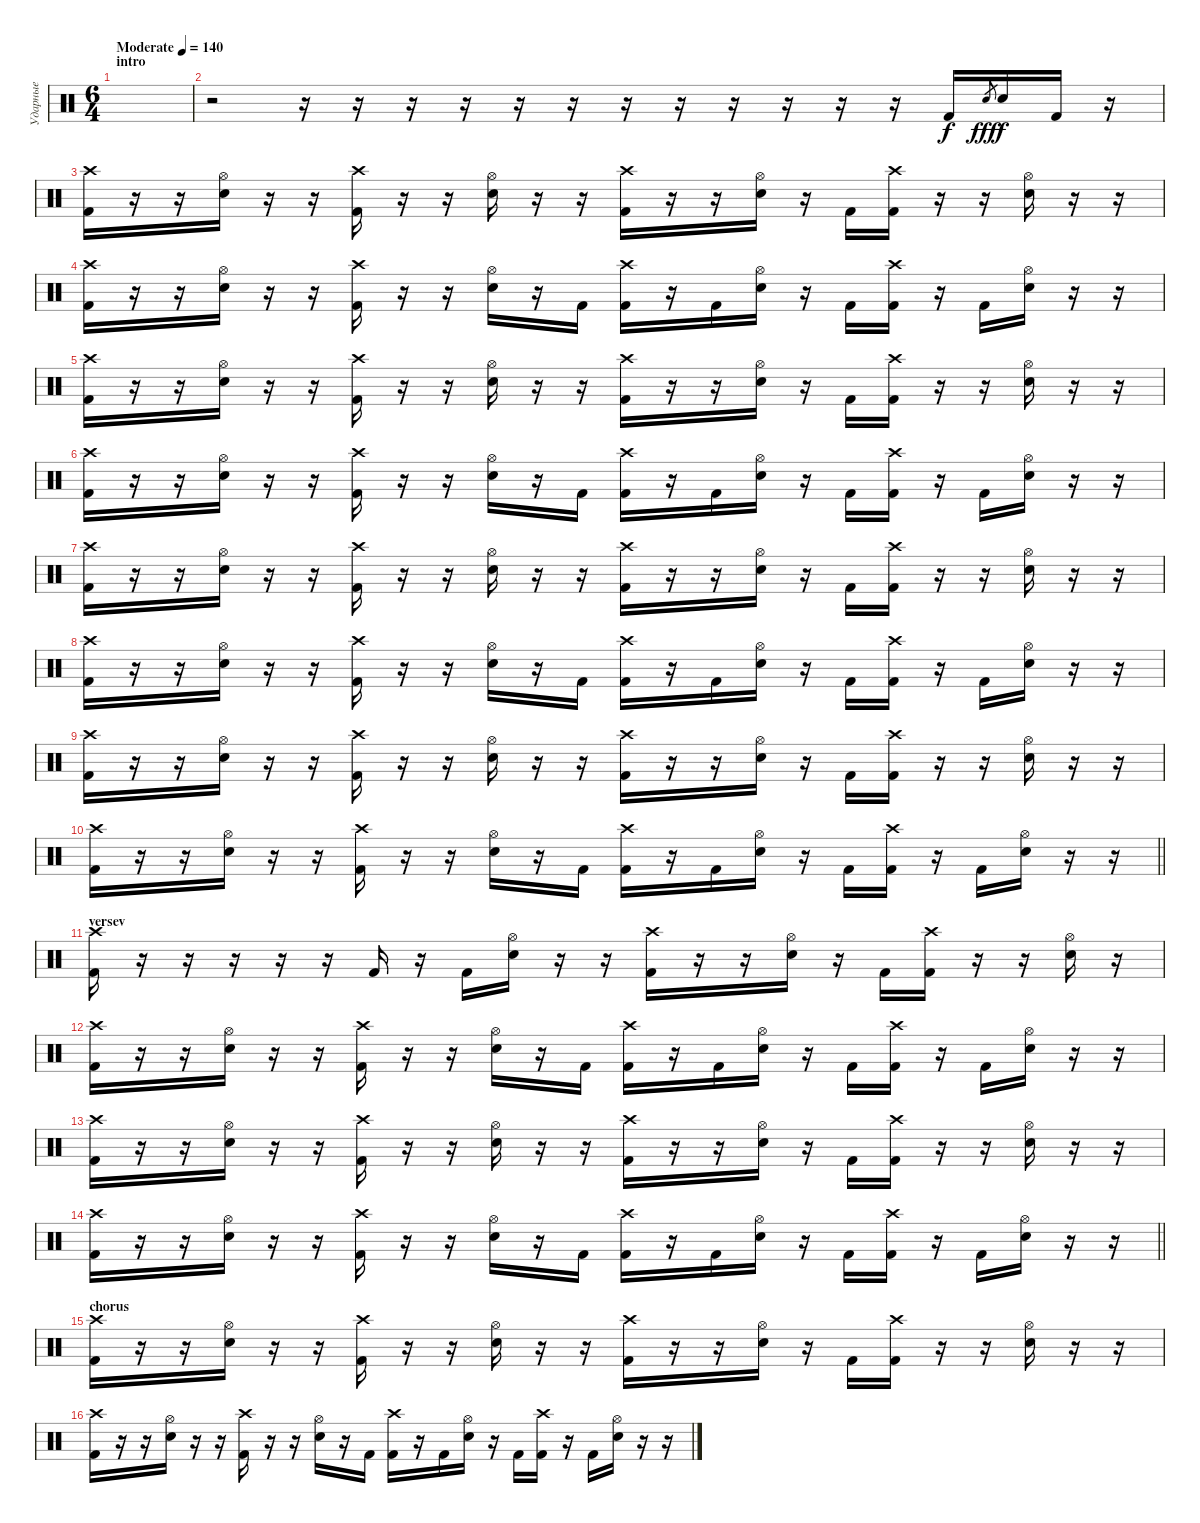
\track ("Ударные" "Ударные") {instrument percussion}
\staff {score}
\articulation defaults
\ts (6 4)
\section ("" "intro")
\tempo (140 "Moderate")
\clef neutral
\ks c
|
r.2 r.16 r.16 r.16 r.16 r.16 r.16 r.16 r.16 r.16 r.16 r.16 r.16 "Kick (hit) 2".16 "Snare (hit) 2".8{gr dy fff} "Snare (hit) 2".16{dy f} "Kick (hit) 2".16 r.16 |
("Crash high (hit)" "Kick (hit) 2").16 r.16 r.16 ("Hi-Hat (open)" "Snare (hit) 2").16 r.16 r.16 ("Crash high (hit)" "Kick (hit) 2").16 r.16 r.16 ("Hi-Hat (open)" "Snare (hit) 2").16 r.16 r.16 ("Crash high (hit)" "Kick (hit) 2").16 r.16 r.16 ("Hi-Hat (open)" "Snare (hit) 2").16 r.16 "Kick (hit) 2".16 ("Crash high (hit)" "Kick (hit) 2").16 r.16 r.16 ("Hi-Hat (open)" "Snare (hit) 2").16 r.16 r.16 |
("Crash high (hit)" "Kick (hit) 2").16 r.16 r.16 ("Hi-Hat (open)" "Snare (hit) 2").16 r.16 r.16 ("Crash high (hit)" "Kick (hit) 2").16 r.16 r.16 ("Hi-Hat (open)" "Snare (hit) 2").16 r.16 "Kick (hit) 2".16 ("Crash high (hit)" "Kick (hit) 2").16 r.16 "Kick (hit) 2".16 ("Hi-Hat (open)" "Snare (hit) 2").16 r.16 "Kick (hit) 2".16 ("Crash high (hit)" "Kick (hit) 2").16 r.16 "Kick (hit) 2".16 ("Hi-Hat (open)" "Snare (hit) 2").16 r.16 r.16 |
("Crash high (hit)" "Kick (hit) 2").16 r.16 r.16 ("Hi-Hat (open)" "Snare (hit) 2").16 r.16 r.16 ("Crash high (hit)" "Kick (hit) 2").16 r.16 r.16 ("Hi-Hat (open)" "Snare (hit) 2").16 r.16 r.16 ("Crash high (hit)" "Kick (hit) 2").16 r.16 r.16 ("Hi-Hat (open)" "Snare (hit) 2").16 r.16 "Kick (hit) 2".16 ("Crash high (hit)" "Kick (hit) 2").16 r.16 r.16 ("Hi-Hat (open)" "Snare (hit) 2").16 r.16 r.16 |
("Crash high (hit)" "Kick (hit) 2").16 r.16 r.16 ("Hi-Hat (open)" "Snare (hit) 2").16 r.16 r.16 ("Crash high (hit)" "Kick (hit) 2").16 r.16 r.16 ("Hi-Hat (open)" "Snare (hit) 2").16 r.16 "Kick (hit) 2".16 ("Crash high (hit)" "Kick (hit) 2").16 r.16 "Kick (hit) 2".16 ("Hi-Hat (open)" "Snare (hit) 2").16 r.16 "Kick (hit) 2".16 ("Crash high (hit)" "Kick (hit) 2").16 r.16 "Kick (hit) 2".16 ("Hi-Hat (open)" "Snare (hit) 2").16 r.16 r.16 |
("Crash high (hit)" "Kick (hit) 2").16 r.16 r.16 ("Hi-Hat (open)" "Snare (hit) 2").16 r.16 r.16 ("Crash high (hit)" "Kick (hit) 2").16 r.16 r.16 ("Hi-Hat (open)" "Snare (hit) 2").16 r.16 r.16 ("Crash high (hit)" "Kick (hit) 2").16 r.16 r.16 ("Hi-Hat (open)" "Snare (hit) 2").16 r.16 "Kick (hit) 2".16 ("Crash high (hit)" "Kick (hit) 2").16 r.16 r.16 ("Hi-Hat (open)" "Snare (hit) 2").16 r.16 r.16 |
("Crash high (hit)" "Kick (hit) 2").16 r.16 r.16 ("Hi-Hat (open)" "Snare (hit) 2").16 r.16 r.16 ("Crash high (hit)" "Kick (hit) 2").16 r.16 r.16 ("Hi-Hat (open)" "Snare (hit) 2").16 r.16 "Kick (hit) 2".16 ("Crash high (hit)" "Kick (hit) 2").16 r.16 "Kick (hit) 2".16 ("Hi-Hat (open)" "Snare (hit) 2").16 r.16 "Kick (hit) 2".16 ("Crash high (hit)" "Kick (hit) 2").16 r.16 "Kick (hit) 2".16 ("Hi-Hat (open)" "Snare (hit) 2").16 r.16 r.16 |
("Crash high (hit)" "Kick (hit) 2").16 r.16 r.16 ("Hi-Hat (open)" "Snare (hit) 2").16 r.16 r.16 ("Crash high (hit)" "Kick (hit) 2").16 r.16 r.16 ("Hi-Hat (open)" "Snare (hit) 2").16 r.16 r.16 ("Crash high (hit)" "Kick (hit) 2").16 r.16 r.16 ("Hi-Hat (open)" "Snare (hit) 2").16 r.16 "Kick (hit) 2".16 ("Crash high (hit)" "Kick (hit) 2").16 r.16 r.16 ("Hi-Hat (open)" "Snare (hit) 2").16 r.16 r.16 |
\barLineRight lightlight
("Crash high (hit)" "Kick (hit) 2").16 r.16 r.16 ("Hi-Hat (open)" "Snare (hit) 2").16 r.16 r.16 ("Crash high (hit)" "Kick (hit) 2").16 r.16 r.16 ("Hi-Hat (open)" "Snare (hit) 2").16 r.16 "Kick (hit) 2".16 ("Crash high (hit)" "Kick (hit) 2").16 r.16 "Kick (hit) 2".16 ("Hi-Hat (open)" "Snare (hit) 2").16 r.16 "Kick (hit) 2".16 ("Crash high (hit)" "Kick (hit) 2").16 r.16 "Kick (hit) 2".16 ("Hi-Hat (open)" "Snare (hit) 2").16 r.16 r.16 |
\section ("" "versev")
("Crash high (hit)" "Kick (hit) 2").16 r.16 r.16 r.16 r.16 r.16 "Kick (hit) 2".16 r.16 "Kick (hit) 2".16 ("Hi-Hat (open)" "Snare (hit) 2").16 r.16 r.16 ("Crash high (hit)" "Kick (hit) 2").16 r.16 r.16 ("Hi-Hat (open)" "Snare (hit) 2").16 r.16 "Kick (hit) 2".16 ("Crash high (hit)" "Kick (hit) 2").16 r.16 r.16 ("Hi-Hat (open)" "Snare (hit) 2").16 r.16 |
("Crash high (hit)" "Kick (hit) 2").16 r.16 r.16 ("Hi-Hat (open)" "Snare (hit) 2").16 r.16 r.16 ("Crash high (hit)" "Kick (hit) 2").16 r.16 r.16 ("Hi-Hat (open)" "Snare (hit) 2").16 r.16 "Kick (hit) 2".16 ("Crash high (hit)" "Kick (hit) 2").16 r.16 "Kick (hit) 2".16 ("Hi-Hat (open)" "Snare (hit) 2").16 r.16 "Kick (hit) 2".16 ("Crash high (hit)" "Kick (hit) 2").16 r.16 "Kick (hit) 2".16 ("Hi-Hat (open)" "Snare (hit) 2").16 r.16 r.16 |
("Crash high (hit)" "Kick (hit) 2").16 r.16 r.16 ("Hi-Hat (open)" "Snare (hit) 2").16 r.16 r.16 ("Crash high (hit)" "Kick (hit) 2").16 r.16 r.16 ("Hi-Hat (open)" "Snare (hit) 2").16 r.16 r.16 ("Crash high (hit)" "Kick (hit) 2").16 r.16 r.16 ("Hi-Hat (open)" "Snare (hit) 2").16 r.16 "Kick (hit) 2".16 ("Crash high (hit)" "Kick (hit) 2").16 r.16 r.16 ("Hi-Hat (open)" "Snare (hit) 2").16 r.16 r.16 |
\barLineRight lightlight
("Crash high (hit)" "Kick (hit) 2").16 r.16 r.16 ("Hi-Hat (open)" "Snare (hit) 2").16 r.16 r.16 ("Crash high (hit)" "Kick (hit) 2").16 r.16 r.16 ("Hi-Hat (open)" "Snare (hit) 2").16 r.16 "Kick (hit) 2".16 ("Crash high (hit)" "Kick (hit) 2").16 r.16 "Kick (hit) 2".16 ("Hi-Hat (open)" "Snare (hit) 2").16 r.16 "Kick (hit) 2".16 ("Crash high (hit)" "Kick (hit) 2").16 r.16 "Kick (hit) 2".16 ("Hi-Hat (open)" "Snare (hit) 2").16 r.16 r.16 |
\section ("" "chorus")
("Crash high (hit)" "Kick (hit) 2").16 r.16 r.16 ("Hi-Hat (open)" "Snare (hit) 2").16 r.16 r.16 ("Crash high (hit)" "Kick (hit) 2").16 r.16 r.16 ("Hi-Hat (open)" "Snare (hit) 2").16 r.16 r.16 ("Crash high (hit)" "Kick (hit) 2").16 r.16 r.16 ("Hi-Hat (open)" "Snare (hit) 2").16 r.16 "Kick (hit) 2".16 ("Crash high (hit)" "Kick (hit) 2").16 r.16 r.16 ("Hi-Hat (open)" "Snare (hit) 2").16 r.16 r.16 |
("Crash high (hit)" "Kick (hit) 2").16 r.16 r.16 ("Hi-Hat (open)" "Snare (hit) 2").16 r.16 r.16 ("Crash high (hit)" "Kick (hit) 2").16 r.16 r.16 ("Hi-Hat (open)" "Snare (hit) 2").16 r.16 "Kick (hit) 2".16 ("Crash high (hit)" "Kick (hit) 2").16 r.16 "Kick (hit) 2".16 ("Hi-Hat (open)" "Snare (hit) 2").16 r.16 "Kick (hit) 2".16 ("Crash high (hit)" "Kick (hit) 2").16 r.16 "Kick (hit) 2".16 ("Hi-Hat (open)" "Snare (hit) 2").16 r.16 r.16
